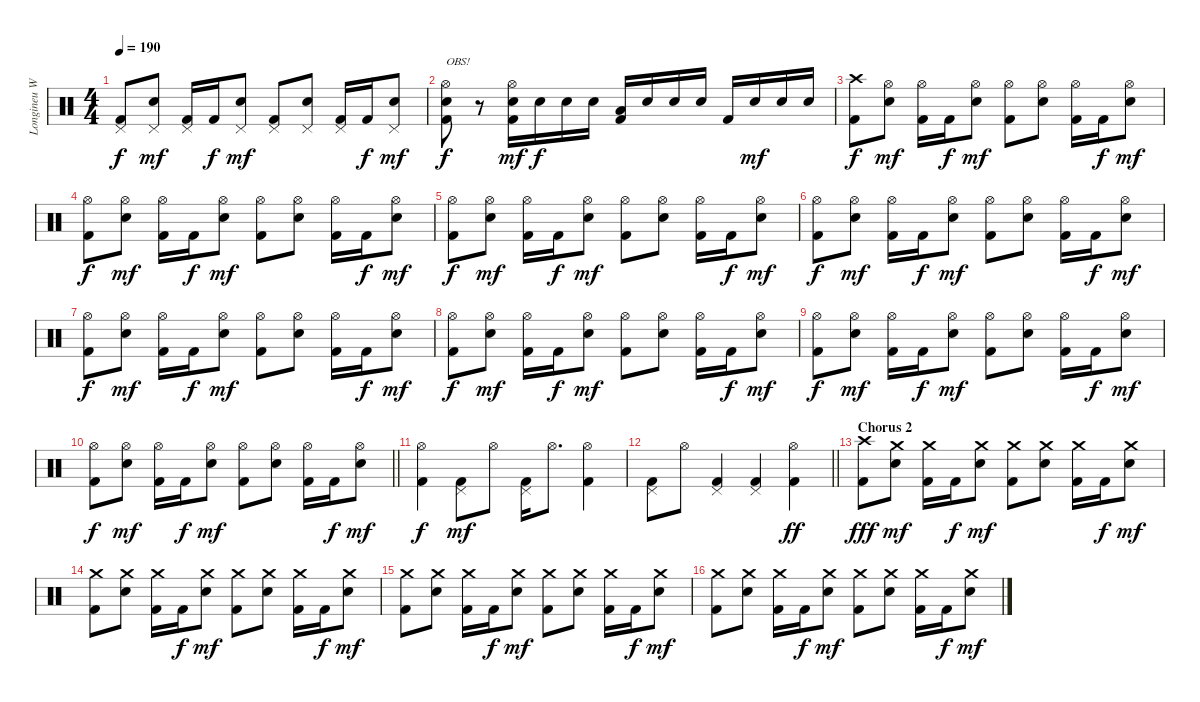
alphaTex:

\track ("Longineu W. Parsons III" "Longineu W") {instrument percussion}
\staff {score}
\articulation defaults
\ts (4 4)
\tempo 190
\clef neutral
\ks c
("Pedal Hi-Hat (hit)" "Kick (hit) 2").8{dy f} ("Pedal Hi-Hat (hit)" "Electric Snare (hit)").8{dy mf} ("Pedal Hi-Hat (hit)" "Kick (hit) 2").16 "Kick (hit) 2".16{dy f} ("Pedal Hi-Hat (hit)" "Electric Snare (hit)").8{dy mf} ("Pedal Hi-Hat (hit)" "Kick (hit) 2").8 ("Pedal Hi-Hat (hit)" "Electric Snare (hit)").8 ("Pedal Hi-Hat (hit)" "Kick (hit) 2").16 "Kick (hit) 2".16{dy f} ("Pedal Hi-Hat (hit)" "Electric Snare (hit)").8{dy mf} |
("Hi-Hat (open)" "Electric Snare (hit)" "Kick (hit) 2").8{txt "OBS!" dy f} r.8 ("Hi-Hat (open)" "Electric Snare (hit)" "Kick (hit) 2").16{dy mf} "Electric Snare (hit)".16{dy f} "Electric Snare (hit)".16 "Electric Snare (hit)".16 ("Low Tom (hit)" "Kick (hit) 2").16 "Electric Snare (hit)".16 "Electric Snare (hit)".16 "Electric Snare (hit)".16 "Kick (hit) 2".16 "Electric Snare (hit)".16{dy mf} "Electric Snare (hit)".16 "Electric Snare (hit)".16 |
("Crash high (hit)" "Kick (hit) 2").8{dy f} ("Hi-Hat (open)" "Electric Snare (hit)").8{dy mf} ("Hi-Hat (open)" "Kick (hit) 2").16 "Kick (hit) 2".16{dy f} ("Hi-Hat (open)" "Electric Snare (hit)").8{dy mf} ("Hi-Hat (open)" "Kick (hit) 2").8 ("Hi-Hat (open)" "Electric Snare (hit)").8 ("Hi-Hat (open)" "Kick (hit) 2").16 "Kick (hit) 2".16{dy f} ("Hi-Hat (open)" "Electric Snare (hit)").8{dy mf} |
("Hi-Hat (open)" "Kick (hit) 2").8{dy f} ("Hi-Hat (open)" "Electric Snare (hit)").8{dy mf} ("Hi-Hat (open)" "Kick (hit) 2").16 "Kick (hit) 2".16{dy f} ("Hi-Hat (open)" "Electric Snare (hit)").8{dy mf} ("Hi-Hat (open)" "Kick (hit) 2").8 ("Hi-Hat (open)" "Electric Snare (hit)").8 ("Hi-Hat (open)" "Kick (hit) 2").16 "Kick (hit) 2".16{dy f} ("Hi-Hat (open)" "Electric Snare (hit)").8{dy mf} |
("Hi-Hat (open)" "Kick (hit) 2").8{dy f} ("Hi-Hat (open)" "Electric Snare (hit)").8{dy mf} ("Hi-Hat (open)" "Kick (hit) 2").16 "Kick (hit) 2".16{dy f} ("Hi-Hat (open)" "Electric Snare (hit)").8{dy mf} ("Hi-Hat (open)" "Kick (hit) 2").8 ("Hi-Hat (open)" "Electric Snare (hit)").8 ("Hi-Hat (open)" "Kick (hit) 2").16 "Kick (hit) 2".16{dy f} ("Hi-Hat (open)" "Electric Snare (hit)").8{dy mf} |
("Hi-Hat (open)" "Kick (hit) 2").8{dy f} ("Hi-Hat (open)" "Electric Snare (hit)").8{dy mf} ("Hi-Hat (open)" "Kick (hit) 2").16 "Kick (hit) 2".16{dy f} ("Hi-Hat (open)" "Electric Snare (hit)").8{dy mf} ("Hi-Hat (open)" "Kick (hit) 2").8 ("Hi-Hat (open)" "Electric Snare (hit)").8 ("Hi-Hat (open)" "Kick (hit) 2").16 "Kick (hit) 2".16{dy f} ("Hi-Hat (open)" "Electric Snare (hit)").8{dy mf} |
("Hi-Hat (open)" "Kick (hit) 2").8{dy f} ("Hi-Hat (open)" "Electric Snare (hit)").8{dy mf} ("Hi-Hat (open)" "Kick (hit) 2").16 "Kick (hit) 2".16{dy f} ("Hi-Hat (open)" "Electric Snare (hit)").8{dy mf} ("Hi-Hat (open)" "Kick (hit) 2").8 ("Hi-Hat (open)" "Electric Snare (hit)").8 ("Hi-Hat (open)" "Kick (hit) 2").16 "Kick (hit) 2".16{dy f} ("Hi-Hat (open)" "Electric Snare (hit)").8{dy mf} |
("Hi-Hat (open)" "Kick (hit) 2").8{dy f} ("Hi-Hat (open)" "Electric Snare (hit)").8{dy mf} ("Hi-Hat (open)" "Kick (hit) 2").16 "Kick (hit) 2".16{dy f} ("Hi-Hat (open)" "Electric Snare (hit)").8{dy mf} ("Hi-Hat (open)" "Kick (hit) 2").8 ("Hi-Hat (open)" "Electric Snare (hit)").8 ("Hi-Hat (open)" "Kick (hit) 2").16 "Kick (hit) 2".16{dy f} ("Hi-Hat (open)" "Electric Snare (hit)").8{dy mf} |
("Hi-Hat (open)" "Kick (hit) 2").8{dy f} ("Hi-Hat (open)" "Electric Snare (hit)").8{dy mf} ("Hi-Hat (open)" "Kick (hit) 2").16 "Kick (hit) 2".16{dy f} ("Hi-Hat (open)" "Electric Snare (hit)").8{dy mf} ("Hi-Hat (open)" "Kick (hit) 2").8 ("Hi-Hat (open)" "Electric Snare (hit)").8 ("Hi-Hat (open)" "Kick (hit) 2").16 "Kick (hit) 2".16{dy f} ("Hi-Hat (open)" "Electric Snare (hit)").8{dy mf} |
\barLineRight lightlight
("Hi-Hat (open)" "Kick (hit) 2").8{dy f} ("Hi-Hat (open)" "Electric Snare (hit)").8{dy mf} ("Hi-Hat (open)" "Kick (hit) 2").16 "Kick (hit) 2".16{dy f} ("Hi-Hat (open)" "Electric Snare (hit)").8{dy mf} ("Hi-Hat (open)" "Kick (hit) 2").8 ("Hi-Hat (open)" "Electric Snare (hit)").8 ("Hi-Hat (open)" "Kick (hit) 2").16 "Kick (hit) 2".16{dy f} ("Hi-Hat (open)" "Electric Snare (hit)").8{dy mf} |
("Hi-Hat (open)" "Kick (hit) 2").4{dy f} ("Pedal Hi-Hat (hit)" "Kick (hit) 2").8{dy mf} "Hi-Hat (open)".8 ("Pedal Hi-Hat (hit)" "Kick (hit) 2").16 "Hi-Hat (open)".8{d} ("Hi-Hat (open)" "Kick (hit) 2").4 |
\barLineRight lightlight
("Pedal Hi-Hat (hit)" "Kick (hit) 2").8 "Hi-Hat (open)".8 ("Pedal Hi-Hat (hit)" "Kick (hit) 2").4 ("Pedal Hi-Hat (hit)" "Kick (hit) 2").4 ("Hi-Hat (open)" "Kick (hit) 2").4{dy ff} |
\section ("" "Chorus 2")
("Crash high (hit)" "Kick (hit) 2").8{dy fff} ("Crash medium (hit)" "Electric Snare (hit)").8{dy mf} ("Crash medium (hit)" "Kick (hit) 2").16 "Kick (hit) 2".16{dy f} ("Crash medium (hit)" "Electric Snare (hit)").8{dy mf} ("Crash medium (hit)" "Kick (hit) 2").8 ("Crash medium (hit)" "Electric Snare (hit)").8 ("Crash medium (hit)" "Kick (hit) 2").16 "Kick (hit) 2".16{dy f} ("Crash medium (hit)" "Electric Snare (hit)").8{dy mf} |
("Crash medium (hit)" "Kick (hit) 2").8 ("Crash medium (hit)" "Electric Snare (hit)").8 ("Crash medium (hit)" "Kick (hit) 2").16 "Kick (hit) 2".16{dy f} ("Crash medium (hit)" "Electric Snare (hit)").8{dy mf} ("Crash medium (hit)" "Kick (hit) 2").8 ("Crash medium (hit)" "Electric Snare (hit)").8 ("Crash medium (hit)" "Kick (hit) 2").16 "Kick (hit) 2".16{dy f} ("Crash medium (hit)" "Electric Snare (hit)").8{dy mf} |
("Crash medium (hit)" "Kick (hit) 2").8 ("Crash medium (hit)" "Electric Snare (hit)").8 ("Crash medium (hit)" "Kick (hit) 2").16 "Kick (hit) 2".16{dy f} ("Crash medium (hit)" "Electric Snare (hit)").8{dy mf} ("Crash medium (hit)" "Kick (hit) 2").8 ("Crash medium (hit)" "Electric Snare (hit)").8 ("Crash medium (hit)" "Kick (hit) 2").16 "Kick (hit) 2".16{dy f} ("Crash medium (hit)" "Electric Snare (hit)").8{dy mf} |
("Crash medium (hit)" "Kick (hit) 2").8 ("Crash medium (hit)" "Electric Snare (hit)").8 ("Crash medium (hit)" "Kick (hit) 2").16 "Kick (hit) 2".16{dy f} ("Crash medium (hit)" "Electric Snare (hit)").8{dy mf} ("Crash medium (hit)" "Kick (hit) 2").8 ("Crash medium (hit)" "Electric Snare (hit)").8 ("Crash medium (hit)" "Kick (hit) 2").16 "Kick (hit) 2".16{dy f} ("Crash medium (hit)" "Electric Snare (hit)").8{dy mf}
